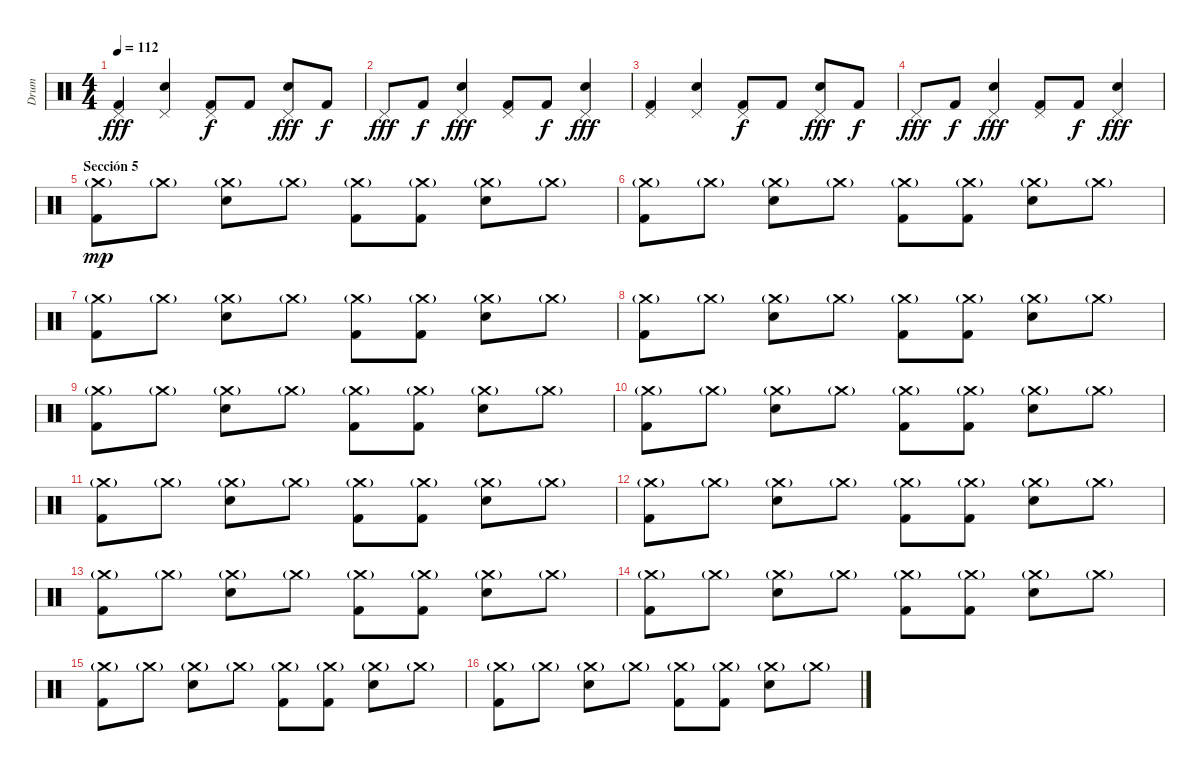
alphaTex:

\track ("Drum" "Drum") {instrument percussion}
\staff {score}
\articulation defaults
\ts (4 4)
\tempo 112
\clef neutral
\ks c
("Pedal Hi-Hat (hit)" "Kick (hit) 2").4{dy fff} ("Pedal Hi-Hat (hit)" "Electric Snare (hit)").4 ("Pedal Hi-Hat (hit)" "Kick (hit) 2").8{dy f} "Kick (hit) 2".8 ("Pedal Hi-Hat (hit)" "Electric Snare (hit)").8{dy fff} "Kick (hit) 2".8{dy f} |
"Pedal Hi-Hat (hit)".8{dy fff} "Kick (hit) 2".8{dy f} ("Pedal Hi-Hat (hit)" "Electric Snare (hit)").4{dy fff} ("Pedal Hi-Hat (hit)" "Kick (hit) 2").8 "Kick (hit) 2".8{dy f} ("Pedal Hi-Hat (hit)" "Electric Snare (hit)").4{dy fff} |
("Pedal Hi-Hat (hit)" "Kick (hit) 2").4 ("Pedal Hi-Hat (hit)" "Electric Snare (hit)").4 ("Pedal Hi-Hat (hit)" "Kick (hit) 2").8{dy f} "Kick (hit) 2".8 ("Pedal Hi-Hat (hit)" "Electric Snare (hit)").8{dy fff} "Kick (hit) 2".8{dy f} |
"Pedal Hi-Hat (hit)".8{dy fff} "Kick (hit) 2".8{dy f} ("Pedal Hi-Hat (hit)" "Electric Snare (hit)").4{dy fff} ("Pedal Hi-Hat (hit)" "Kick (hit) 2").8 "Kick (hit) 2".8{dy f} ("Pedal Hi-Hat (hit)" "Electric Snare (hit)").4{dy fff} |
\section ("" "Sección 5")
("Crash medium (hit)"{g} "Kick (hit) 2").8{dy mp} "Crash medium (hit)"{g}.8 ("Crash medium (hit)"{g} "Electric Snare (hit)").8 "Crash medium (hit)"{g}.8 ("Crash medium (hit)"{g} "Kick (hit) 2").8 ("Crash medium (hit)"{g} "Kick (hit) 2").8 ("Crash medium (hit)"{g} "Electric Snare (hit)").8 "Crash medium (hit)"{g}.8 |
("Crash medium (hit)"{g} "Kick (hit) 2").8 "Crash medium (hit)"{g}.8 ("Crash medium (hit)"{g} "Electric Snare (hit)").8 "Crash medium (hit)"{g}.8 ("Crash medium (hit)"{g} "Kick (hit) 2").8 ("Crash medium (hit)"{g} "Kick (hit) 2").8 ("Crash medium (hit)"{g} "Electric Snare (hit)").8 "Crash medium (hit)"{g}.8 |
("Crash medium (hit)"{g} "Kick (hit) 2").8 "Crash medium (hit)"{g}.8 ("Crash medium (hit)"{g} "Electric Snare (hit)").8 "Crash medium (hit)"{g}.8 ("Crash medium (hit)"{g} "Kick (hit) 2").8 ("Crash medium (hit)"{g} "Kick (hit) 2").8 ("Crash medium (hit)"{g} "Electric Snare (hit)").8 "Crash medium (hit)"{g}.8 |
("Crash medium (hit)"{g} "Kick (hit) 2").8 "Crash medium (hit)"{g}.8 ("Crash medium (hit)"{g} "Electric Snare (hit)").8 "Crash medium (hit)"{g}.8 ("Crash medium (hit)"{g} "Kick (hit) 2").8 ("Crash medium (hit)"{g} "Kick (hit) 2").8 ("Crash medium (hit)"{g} "Electric Snare (hit)").8 "Crash medium (hit)"{g}.8 |
("Crash medium (hit)"{g} "Kick (hit) 2").8 "Crash medium (hit)"{g}.8 ("Crash medium (hit)"{g} "Electric Snare (hit)").8 "Crash medium (hit)"{g}.8 ("Crash medium (hit)"{g} "Kick (hit) 2").8 ("Crash medium (hit)"{g} "Kick (hit) 2").8 ("Crash medium (hit)"{g} "Electric Snare (hit)").8 "Crash medium (hit)"{g}.8 |
("Crash medium (hit)"{g} "Kick (hit) 2").8 "Crash medium (hit)"{g}.8 ("Crash medium (hit)"{g} "Electric Snare (hit)").8 "Crash medium (hit)"{g}.8 ("Crash medium (hit)"{g} "Kick (hit) 2").8 ("Crash medium (hit)"{g} "Kick (hit) 2").8 ("Crash medium (hit)"{g} "Electric Snare (hit)").8 "Crash medium (hit)"{g}.8 |
("Crash medium (hit)"{g} "Kick (hit) 2").8 "Crash medium (hit)"{g}.8 ("Crash medium (hit)"{g} "Electric Snare (hit)").8 "Crash medium (hit)"{g}.8 ("Crash medium (hit)"{g} "Kick (hit) 2").8 ("Crash medium (hit)"{g} "Kick (hit) 2").8 ("Crash medium (hit)"{g} "Electric Snare (hit)").8 "Crash medium (hit)"{g}.8 |
("Crash medium (hit)"{g} "Kick (hit) 2").8 "Crash medium (hit)"{g}.8 ("Crash medium (hit)"{g} "Electric Snare (hit)").8 "Crash medium (hit)"{g}.8 ("Crash medium (hit)"{g} "Kick (hit) 2").8 ("Crash medium (hit)"{g} "Kick (hit) 2").8 ("Crash medium (hit)"{g} "Electric Snare (hit)").8 "Crash medium (hit)"{g}.8 |
("Crash medium (hit)"{g} "Kick (hit) 2").8 "Crash medium (hit)"{g}.8 ("Crash medium (hit)"{g} "Electric Snare (hit)").8 "Crash medium (hit)"{g}.8 ("Crash medium (hit)"{g} "Kick (hit) 2").8 ("Crash medium (hit)"{g} "Kick (hit) 2").8 ("Crash medium (hit)"{g} "Electric Snare (hit)").8 "Crash medium (hit)"{g}.8 |
("Crash medium (hit)"{g} "Kick (hit) 2").8 "Crash medium (hit)"{g}.8 ("Crash medium (hit)"{g} "Electric Snare (hit)").8 "Crash medium (hit)"{g}.8 ("Crash medium (hit)"{g} "Kick (hit) 2").8 ("Crash medium (hit)"{g} "Kick (hit) 2").8 ("Crash medium (hit)"{g} "Electric Snare (hit)").8 "Crash medium (hit)"{g}.8 |
("Crash medium (hit)"{g} "Kick (hit) 2").8 "Crash medium (hit)"{g}.8 ("Crash medium (hit)"{g} "Electric Snare (hit)").8 "Crash medium (hit)"{g}.8 ("Crash medium (hit)"{g} "Kick (hit) 2").8 ("Crash medium (hit)"{g} "Kick (hit) 2").8 ("Crash medium (hit)"{g} "Electric Snare (hit)").8 "Crash medium (hit)"{g}.8 |
("Crash medium (hit)"{g} "Kick (hit) 2").8 "Crash medium (hit)"{g}.8 ("Crash medium (hit)"{g} "Electric Snare (hit)").8 "Crash medium (hit)"{g}.8 ("Crash medium (hit)"{g} "Kick (hit) 2").8 ("Crash medium (hit)"{g} "Kick (hit) 2").8 ("Crash medium (hit)"{g} "Electric Snare (hit)").8 "Crash medium (hit)"{g}.8
